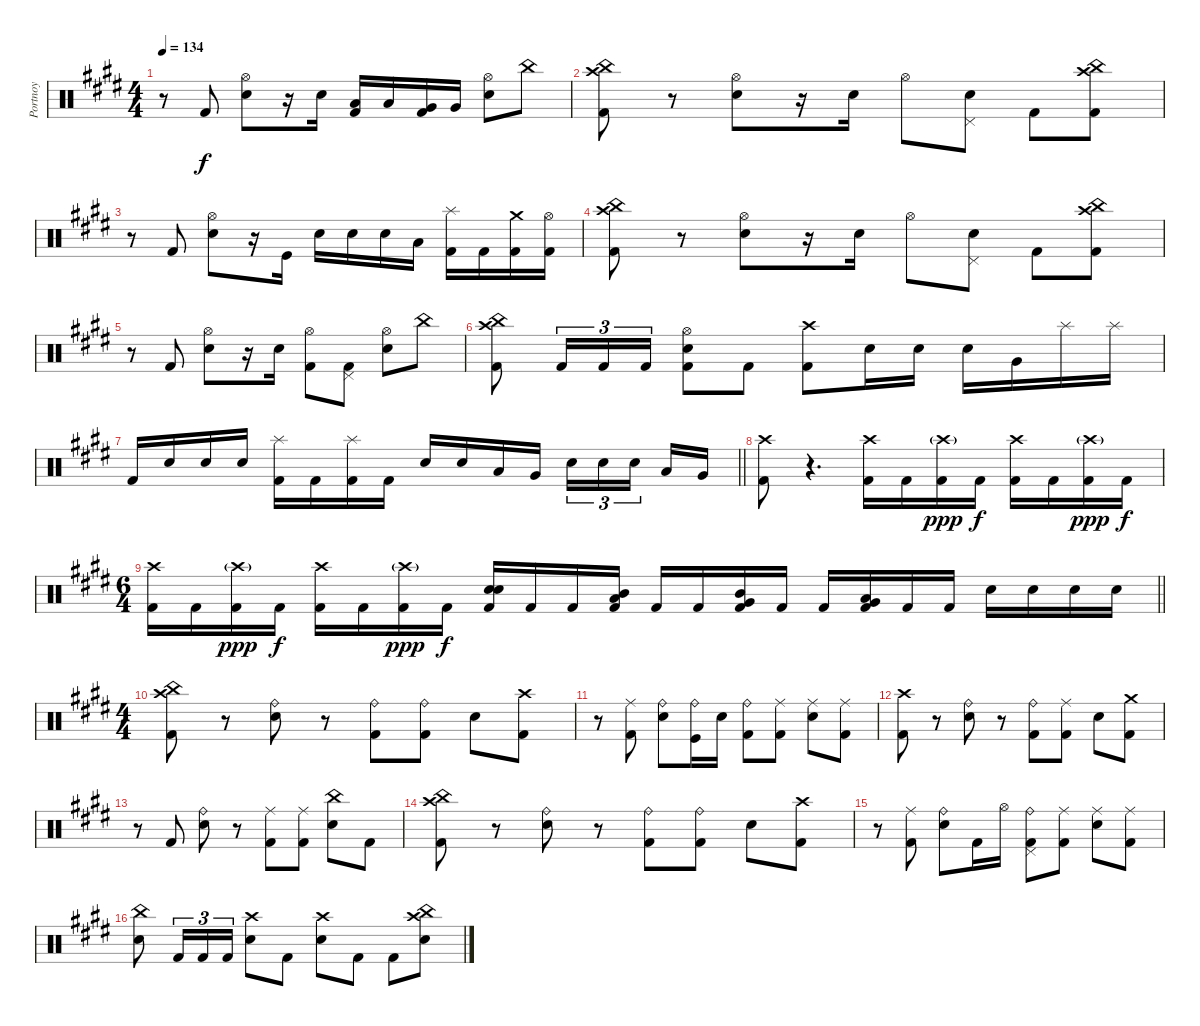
\track ("Portnoy" "Portnoy") {instrument percussion}
\staff {score}
\articulation defaults
\ts (4 4)
\tempo 134
\clef neutral
\ks c#minor
r.8{dy f} "Kick (hit) 2".8 ("Snare (hit) 2" "Hi-Hat (open)").8 r.16 "Electric Snare (hit)".16 ("Low Tom (hit)" "Kick (hit) 2").16 "Low Tom (hit)".16 ("Very Low Tom (hit)" "Kick (hit) 2").16 "Very Low Tom (hit)".16 ("Snare (hit) 2" "Hi-Hat (open)").8 "China (hit)".8 |
("Kick (hit) 2" "Crash high (hit)" "China (hit)").8 r.8 ("Snare (hit) 2" "Hi-Hat (open)").8 r.16 "Electric Snare (hit)".16 "Hi-Hat (open)".8 ("Snare (hit) 2" "Pedal Hi-Hat (hit)").8 "Kick (hit) 2".8 ("Kick (hit) 2" "Crash high (hit)" "China (hit)").8 |
r.8 "Kick (hit) 2".8 ("Snare (hit) 2" "Hi-Hat (open)").8 r.16 "Kick (hit)".16 "Snare (hit) 2".16 "Snare (hit) 2".16 "Electric Snare (hit)".16 "Low Tom (hit)".16 ("Splash (hit)" "Kick (hit) 2").16 "Kick (hit) 2".16 ("Crash medium (hit)" "Kick (hit) 2").16 ("Hi-Hat (open)" "Kick (hit) 2").16 |
("Kick (hit) 2" "Crash high (hit)" "China (hit)").8 r.8 ("Snare (hit) 2" "Hi-Hat (open)").8 r.16 "Electric Snare (hit)".16 "Hi-Hat (open)".8 ("Snare (hit) 2" "Pedal Hi-Hat (hit)").8 "Kick (hit) 2".8 ("Kick (hit) 2" "Crash high (hit)" "China (hit)").8 |
r.8 "Kick (hit) 2".8 ("Snare (hit) 2" "Hi-Hat (open)").8 r.16 "Electric Snare (hit)".16 ("Kick (hit) 2" "Hi-Hat (open)").8 ("Kick (hit) 2" "Pedal Hi-Hat (hit)").8 ("Snare (hit) 2" "Hi-Hat (open)").8 "China (hit)".8 |
("Kick (hit) 2" "Crash high (hit)" "China (hit)").8 "Kick (hit) 2".16{tu (3 2)} "Kick (hit) 2".16{tu (3 2)} "Kick (hit) 2".16{tu (3 2)} ("Kick (hit) 2" "Hi-Hat (open)" "Snare (hit) 2").8 "Kick (hit) 2".8 ("Kick (hit) 2" "Crash high (hit)").8 "Electric Snare (hit)".16 "Electric Snare (hit)".16 "Electric Snare (hit)".16 "Very Low Tom (hit)".16 "Splash (hit)".16 "Splash (hit)".16 |
\barLineRight lightlight "Kick (hit) 2".16 "Snare (hit) 2".16 "Snare (hit) 2".16 "Snare (hit) 2".16
("Kick (hit) 2" "Splash (hit)").16 "Kick (hit) 2".16 ("Kick (hit) 2" "Splash (hit)").16 "Kick (hit) 2".16 "Snare (hit) 2".16 "Snare (hit) 2".16 "Low Tom (hit)".16 "Very Low Tom (hit)".16 "Snare (hit) 2".16{tu (3 2)} "Snare (hit) 2".16{tu (3 2)} "Snare (hit) 2".16{tu (3 2) beam splitsecondary} "Low Tom (hit)".16 "Very Low Tom (hit)".16 |
("Crash high (hit)" "Kick (hit) 2").8 r.4{d volume 0} ("Kick (hit) 2" "Crash high (hit)").16{volume 16} "Kick (hit) 2".16 ("Kick (hit) 2" "Crash high (hit)"{g}).16{dy ppp} "Kick (hit) 2".16{dy f} ("Kick (hit) 2" "Crash high (hit)").16 "Kick (hit) 2".16 ("Kick (hit) 2" "Crash high (hit)"{g}).16{dy ppp} "Kick (hit) 2".16{dy f} |
\ts (6 4)
\barLineRight lightlight
("Kick (hit) 2" "Crash high (hit)").16 "Kick (hit) 2".16 ("Kick (hit) 2" "Crash high (hit)"{g}).16{dy ppp} "Kick (hit) 2".16{dy f} ("Kick (hit) 2" "Crash high (hit)").16 "Kick (hit) 2".16 ("Kick (hit) 2" "Crash high (hit)"{g}).16{dy ppp} "Kick (hit) 2".16{dy f} ("Kick (hit) 2" "Snare (hit) 2" "Electric Snare (hit)").16 "Kick (hit) 2".16 "Kick (hit) 2".16 ("Kick (hit) 2" "Mid Tom (hit)" "Low Tom (hit)").16 "Kick (hit) 2".16 "Kick (hit) 2".16 ("Kick (hit) 2" "Mid Tom (hit)" "Very Low Tom (hit)").16 "Kick (hit) 2".16 "Kick (hit) 2".16 ("Kick (hit) 2" "Very Low Tom (hit)" "Low Tom (hit)").16 "Kick (hit) 2".16 "Kick (hit) 2".16 "Electric Snare (hit)".16 "Electric Snare (hit)".16 "Electric Snare (hit)".16 "Electric Snare (hit)".16 |
\ts (4 4)
("Kick (hit) 2" "Crash high (hit)" "China (hit)").8 r.8 ("Snare (hit) 2" "Ride (bell)").8 r.8 ("Kick (hit) 2" "Ride (bell)").8 ("Kick (hit) 2" "Ride (bell)").8 "Snare (hit) 2".8 ("Kick (hit) 2" "Crash high (hit)").8 |
r.8 ("Kick (hit) 2" "Ride (middle)").8 ("Snare (hit) 2" "Ride (bell)").8 ("Kick (hit)" "Ride (bell)").16 "Electric Snare (hit)".16 ("Kick (hit) 2" "Ride (bell)").8 ("Kick (hit) 2" "Ride (middle)").8 ("Snare (hit) 2" "Ride (middle)").8 ("Kick (hit) 2" "Ride (middle)").8 |
("Kick (hit) 2" "Crash high (hit)").8 r.8 ("Snare (hit) 2" "Ride (bell)").8 r.8 ("Kick (hit) 2" "Ride (bell)").8 ("Kick (hit) 2" "Ride (middle)").8 "Snare (hit) 2".8 ("Kick (hit) 2" "Crash medium (hit)").8 |
r.8 "Kick (hit) 2".8 ("Snare (hit) 2" "Ride (bell)").8 r.8 ("Kick (hit) 2" "Ride (middle)").8 ("Kick (hit) 2" "Ride (middle)").8 ("Snare (hit) 2" "China (hit)").8 "Kick (hit) 2".8 |
("Kick (hit) 2" "Crash high (hit)" "China (hit)").8 r.8 ("Snare (hit) 2" "Ride (bell)").8 r.8 ("Kick (hit) 2" "Ride (bell)").8 ("Kick (hit) 2" "Ride (bell)").8 "Snare (hit) 2".8 ("Kick (hit) 2" "Crash high (hit)").8 |
r.8 ("Kick (hit) 2" "Ride (middle)").8 ("Snare (hit) 2" "Ride (bell)").8 "Kick (hit) 2".16 "Hi-Hat (open)".16 ("Kick (hit) 2" "Ride (bell)" "Pedal Hi-Hat (hit)").8 ("Kick (hit) 2" "Ride (middle)").8 ("Snare (hit) 2" "Ride (middle)").8 ("Kick (hit) 2" "Ride (middle)").8 |
("Snare (hit) 2" "China (hit)").8 "Kick (hit) 2".16{tu (3 2)} "Kick (hit) 2".16{tu (3 2)} "Kick (hit) 2".16{tu (3 2)} ("Snare (hit) 2" "Crash high (hit)").8 "Kick (hit) 2".8 ("Snare (hit) 2" "Crash high (hit)").8 "Kick (hit) 2".8 "Kick (hit) 2".8 ("Snare (hit) 2" "Crash high (hit)" "China (hit)").8
